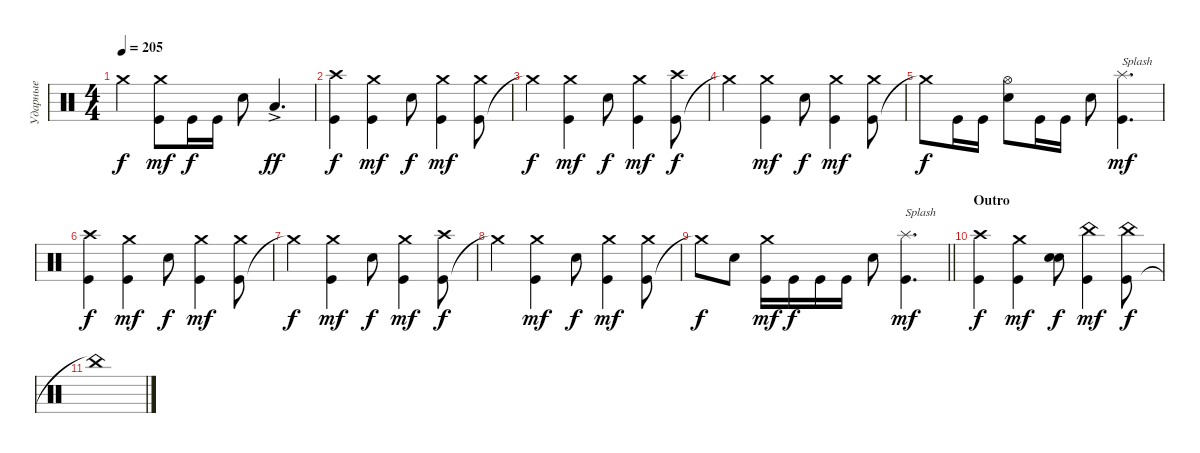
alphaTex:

\track ("Ударные" "Ударные") {instrument percussion}
\staff {score}
\articulation defaults
\ts (4 4)
\tempo 205
\clef neutral
\ks aminor "Crash medium (hit)"{t}.4{dy f}
("Kick (hit)" "Crash medium (hit)").8{dy mf} "Kick (hit)".16{dy f} "Kick (hit)".16 "Snare (hit) 2".8 "Low Tom (hit)"{ac}.4{d dy ff} |
("Kick (hit)" "Crash high (hit)").4{dy f} ("Kick (hit)" "Crash medium (hit)").4{dy mf} "Snare (hit) 2".8{dy f} ("Kick (hit)" "Crash medium (hit)").4{dy mf} ("Kick (hit)" "Crash medium (hit)").8 |
"Crash medium (hit)"{t}.4{dy f} ("Kick (hit)" "Crash medium (hit)").4{dy mf} "Snare (hit) 2".8{dy f} ("Kick (hit)" "Crash medium (hit)").4{dy mf} ("Kick (hit)" "Crash high (hit)").8{dy f} |
"Crash medium (hit)"{t}.4 ("Kick (hit)" "Crash medium (hit)").4{dy mf} "Snare (hit) 2".8{dy f} ("Kick (hit)" "Crash medium (hit)").4{dy mf} ("Kick (hit)" "Crash medium (hit)").8 |
"Crash medium (hit)"{t}.8{dy f} "Kick (hit)".16 "Kick (hit)".16 ("Snare (hit) 2" "Hi-Hat (open)").8 "Kick (hit)".16 "Kick (hit)".16 "Snare (hit) 2".8 ("Kick (hit)" "Splash (hit)").4{d txt "Splash" dy mf} |
("Kick (hit)" "Crash high (hit)").4{dy f} ("Kick (hit)" "Crash medium (hit)").4{dy mf} "Snare (hit) 2".8{dy f} ("Kick (hit)" "Crash medium (hit)").4{dy mf} ("Kick (hit)" "Crash medium (hit)").8 |
"Crash medium (hit)"{t}.4{dy f} ("Kick (hit)" "Crash medium (hit)").4{dy mf} "Snare (hit) 2".8{dy f} ("Kick (hit)" "Crash medium (hit)").4{dy mf} ("Kick (hit)" "Crash high (hit)").8{dy f} |
"Crash medium (hit)"{t}.4 ("Kick (hit)" "Crash medium (hit)").4{dy mf} "Snare (hit) 2".8{dy f} ("Kick (hit)" "Crash medium (hit)").4{dy mf} ("Kick (hit)" "Crash medium (hit)").8 |
\barLineRight lightlight "Crash medium (hit)"{t}.8{dy f} "Snare (hit) 2".8
("Kick (hit)" "Crash medium (hit)").16{dy mf} "Kick (hit)".16{dy f} "Kick (hit)".16 "Kick (hit)".16 "Snare (hit) 2".8 ("Kick (hit)" "Splash (hit)").4{d txt "Splash" dy mf} |
\section ("" "Outro")
("Kick (hit)" "Crash high (hit)").4{dy f} ("Kick (hit)" "Crash medium (hit)").4{dy mf} ("Snare (hit) 2" "Snare (hit) 2").8{bd 240 dy f} ("Kick (hit)" "China (hit)").4{dy mf} ("Kick (hit)" "China (hit)").8{dy f} |
"China (hit)"{t}.1
